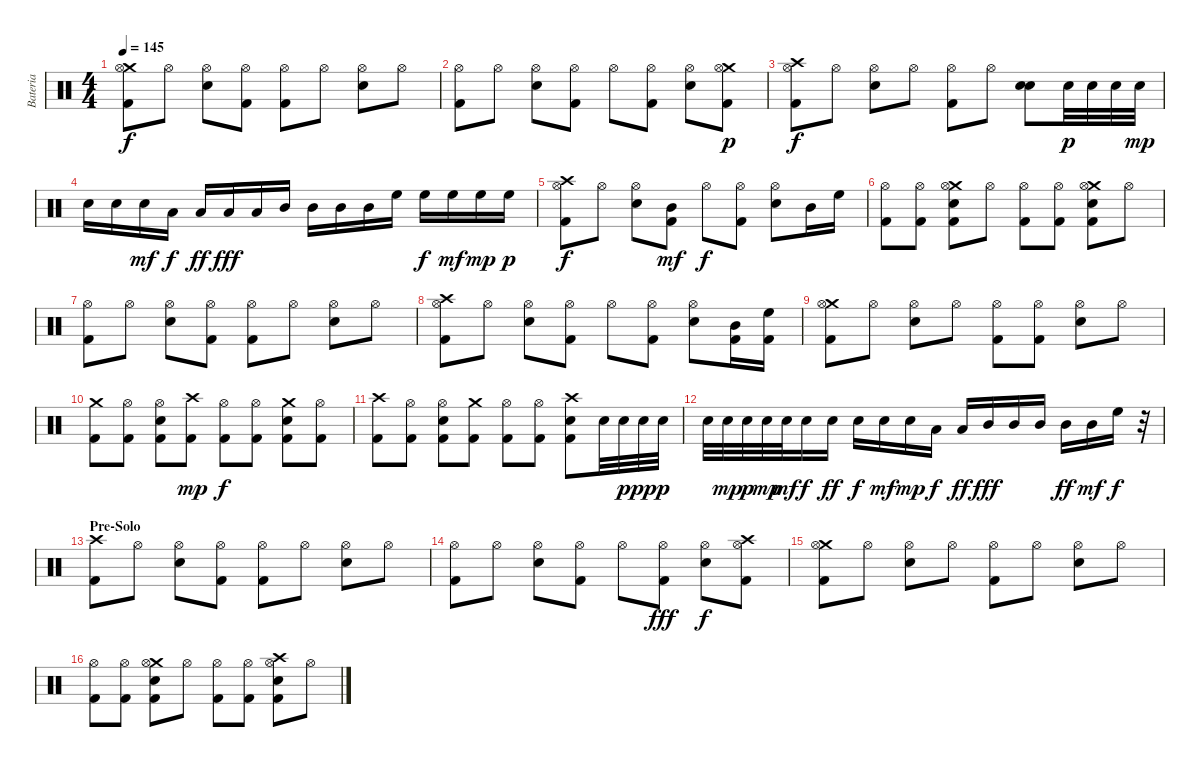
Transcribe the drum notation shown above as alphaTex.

\track ("Bateria" "Bateria") {instrument percussion}
\staff {score}
\articulation defaults
\ts (4 4)
\tempo 145
\clef neutral
\ks c
("Crash medium (hit)" "Hi-Hat (open)" "Kick (hit) 2").8{dy f} "Hi-Hat (open)".8 ("Hi-Hat (open)" "Electric Snare (hit)").8 ("Hi-Hat (open)" "Kick (hit) 2").8 ("Hi-Hat (open)" "Kick (hit) 2").8 "Hi-Hat (open)".8 ("Hi-Hat (open)" "Electric Snare (hit)").8 "Hi-Hat (open)".8 |
("Hi-Hat (open)" "Kick (hit) 2").8 "Hi-Hat (open)".8 ("Hi-Hat (open)" "Electric Snare (hit)").8 ("Hi-Hat (open)" "Kick (hit) 2").8 "Hi-Hat (open)".8 ("Hi-Hat (open)" "Kick (hit) 2").8 ("Hi-Hat (open)" "Electric Snare (hit)").8 ("Crash medium (hit)" "Hi-Hat (open)" "Kick (hit) 2").8{dy p} |
("Crash high (hit)" "Hi-Hat (open)" "Kick (hit) 2").8{dy f} "Hi-Hat (open)".8 ("Hi-Hat (open)" "Electric Snare (hit)").8 "Hi-Hat (open)".8 ("Hi-Hat (open)" "Kick (hit) 2").8 "Hi-Hat (open)".8 ("Electric Snare (hit)" "Electric Snare (hit)").8 "Electric Snare (hit)".32{dy p} "Electric Snare (hit)".32 "Electric Snare (hit)".32 "Electric Snare (hit)".32{dy mp} |
"Electric Snare (hit)".16 "Electric Snare (hit)".16 "Electric Snare (hit)".16{dy mf} "Low Tom (hit)".16{dy f} "Low Tom (hit)".16{dy ff} "Low Tom (hit)".16{dy fff} "Low Tom (hit)".16 "Mid Tom (hit)".16 "Mid Tom (hit)".16 "Mid Tom (hit)".16 "Mid Tom (hit)".16 "High Floor Tom (hit)".16 "High Floor Tom (hit)".16{dy f} "High Floor Tom (hit)".16{dy mf} "High Floor Tom (hit)".16{dy mp} "High Floor Tom (hit)".16{dy p} |
("Crash high (hit)" "Hi-Hat (open)" "Kick (hit) 2").8{dy f} "Hi-Hat (open)".8 ("Hi-Hat (open)" "Electric Snare (hit)").8 ("Mid Tom (hit)" "Kick (hit) 2").8{dy mf} "Hi-Hat (open)".8{dy f} ("Hi-Hat (open)" "Kick (hit) 2").8 ("Hi-Hat (open)" "Electric Snare (hit)").8 "Mid Tom (hit)".16 "High Floor Tom (hit)".16 |
("Hi-Hat (open)" "Kick (hit) 2").8 ("Hi-Hat (open)" "Kick (hit) 2").8 ("Crash medium (hit)" "Hi-Hat (open)" "Electric Snare (hit)" "Kick (hit) 2").8 "Hi-Hat (open)".8 ("Hi-Hat (open)" "Kick (hit) 2").8 ("Hi-Hat (open)" "Kick (hit) 2").8 ("Crash medium (hit)" "Hi-Hat (open)" "Electric Snare (hit)" "Kick (hit) 2").8 "Hi-Hat (open)".8 |
("Hi-Hat (open)" "Kick (hit) 2").8 "Hi-Hat (open)".8 ("Hi-Hat (open)" "Electric Snare (hit)").8 ("Hi-Hat (open)" "Kick (hit) 2").8 ("Hi-Hat (open)" "Kick (hit) 2").8 "Hi-Hat (open)".8 ("Hi-Hat (open)" "Electric Snare (hit)").8 "Hi-Hat (open)".8 |
("Crash high (hit)" "Hi-Hat (open)" "Kick (hit) 2").8 "Hi-Hat (open)".8 ("Hi-Hat (open)" "Electric Snare (hit)").8 ("Hi-Hat (open)" "Kick (hit) 2").8 "Hi-Hat (open)".8 ("Hi-Hat (open)" "Kick (hit) 2").8 ("Hi-Hat (open)" "Electric Snare (hit)").8 ("Mid Tom (hit)" "Kick (hit) 2").16 ("High Floor Tom (hit)" "Kick (hit) 2").16 |
("Crash medium (hit)" "Hi-Hat (open)" "Kick (hit) 2").8 "Hi-Hat (open)".8 ("Hi-Hat (open)" "Electric Snare (hit)").8 "Hi-Hat (open)".8 ("Hi-Hat (open)" "Kick (hit) 2").8 ("Hi-Hat (open)" "Kick (hit) 2").8 ("Hi-Hat (open)" "Electric Snare (hit)").8 "Hi-Hat (open)".8 |
("Crash medium (hit)" "Kick (hit) 2").8 ("Hi-Hat (open)" "Kick (hit) 2").8 ("Hi-Hat (open)" "Electric Snare (hit)" "Kick (hit) 2").8 ("Crash high (hit)" "Kick (hit) 2").8{dy mp} ("Hi-Hat (open)" "Kick (hit) 2").8{dy f} ("Hi-Hat (open)" "Kick (hit) 2").8 ("Crash medium (hit)" "Electric Snare (hit)" "Kick (hit) 2").8 ("Hi-Hat (open)" "Kick (hit) 2").8 |
("Crash high (hit)" "Kick (hit) 2").8 ("Hi-Hat (open)" "Kick (hit) 2").8 ("Hi-Hat (open)" "Electric Snare (hit)" "Kick (hit) 2").8 ("Crash medium (hit)" "Kick (hit) 2").8 ("Hi-Hat (open)" "Kick (hit) 2").8 ("Hi-Hat (open)" "Kick (hit) 2").8 ("Crash high (hit)" "Electric Snare (hit)" "Kick (hit) 2").8 "Electric Snare (hit)".32 "Electric Snare (hit)".32{dy p} "Electric Snare (hit)".32{dy pp} "Electric Snare (hit)".32{dy p} |
"Electric Snare (hit)".32 "Electric Snare (hit)".32{dy mp} "Electric Snare (hit)".32{dy p} "Electric Snare (hit)".32{dy mp} "Electric Snare (hit)".32{dy mf} "Electric Snare (hit)".16{dy f} "Electric Snare (hit)".16{dy ff} "Electric Snare (hit)".16{dy f} "Electric Snare (hit)".16{dy mf} "Electric Snare (hit)".16{dy mp} "Low Floor Tom (hit)".16{dy f} "Low Floor Tom (hit)".16{dy ff} "Mid Tom (hit)".16{dy fff} "Mid Tom (hit)".16 "Mid Tom (hit)".16 "Mid Tom (hit)".16{dy ff} "Mid Tom (hit)".16{dy mf} "High Floor Tom (hit)".16{dy f} r.32 |
\section ("" "Pre-Solo")
("Crash high (hit)" "Kick (hit) 2").8 "Hi-Hat (open)".8 ("Hi-Hat (open)" "Electric Snare (hit)").8 ("Hi-Hat (open)" "Kick (hit) 2").8 ("Hi-Hat (open)" "Kick (hit) 2").8 "Hi-Hat (open)".8 ("Hi-Hat (open)" "Electric Snare (hit)").8 "Hi-Hat (open)".8 |
("Hi-Hat (open)" "Kick (hit) 2").8 "Hi-Hat (open)".8 ("Hi-Hat (open)" "Electric Snare (hit)").8 ("Hi-Hat (open)" "Kick (hit) 2").8 "Hi-Hat (open)".8 ("Hi-Hat (open)" "Kick (hit) 2").8{dy fff} ("Hi-Hat (open)" "Electric Snare (hit)").8{dy f} ("Crash high (hit)" "Hi-Hat (open)" "Kick (hit) 2").8 |
("Crash medium (hit)" "Hi-Hat (open)" "Kick (hit) 2").8 "Hi-Hat (open)".8 ("Hi-Hat (open)" "Electric Snare (hit)").8 "Hi-Hat (open)".8 ("Hi-Hat (open)" "Kick (hit) 2").8 "Hi-Hat (open)".8 ("Hi-Hat (open)" "Electric Snare (hit)").8 "Hi-Hat (open)".8 |
("Hi-Hat (open)" "Kick (hit) 2").8 ("Hi-Hat (open)" "Kick (hit) 2").8 ("Crash medium (hit)" "Hi-Hat (open)" "Electric Snare (hit)" "Kick (hit) 2").8 "Hi-Hat (open)".8 ("Hi-Hat (open)" "Kick (hit) 2").8 ("Hi-Hat (open)" "Kick (hit) 2").8 ("Crash high (hit)" "Hi-Hat (open)" "Electric Snare (hit)" "Kick (hit) 2").8 "Hi-Hat (open)".8
